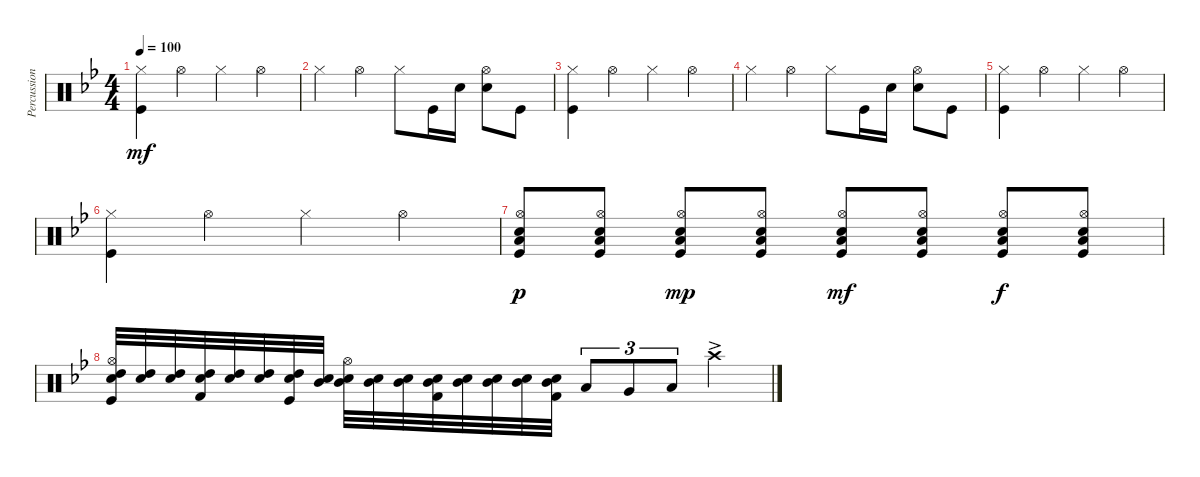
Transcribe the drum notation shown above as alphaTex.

\track ("Percussion" "Percussion") {instrument percussion}
\staff {score}
\articulation defaults
\ts (4 4)
\tempo 100
\clef neutral
\ks bb
("Hi-Hat (closed)" "Kick (hit)").4{dy mf} "Hi-Hat (open)".4 "Hi-Hat (closed)".4 "Hi-Hat (open)".4 |
"Hi-Hat (closed)".4 "Hi-Hat (open)".4 "Hi-Hat (closed)".8 "Kick (hit)".16 "Snare (hit) 2".16 ("Hi-Hat (open)" "Snare (hit) 2").8 "Kick (hit)".8 |
("Hi-Hat (closed)" "Kick (hit)").4 "Hi-Hat (open)".4 "Hi-Hat (closed)".4 "Hi-Hat (open)".4 |
"Hi-Hat (closed)".4 "Hi-Hat (open)".4 "Hi-Hat (closed)".8 "Kick (hit)".16 "Snare (hit) 2".16 ("Hi-Hat (open)" "Snare (hit) 2").8 "Kick (hit)".8 |
("Hi-Hat (closed)" "Kick (hit)").4 "Hi-Hat (open)".4 "Hi-Hat (closed)".4 "Hi-Hat (open)".4 |
("Hi-Hat (closed)" "Kick (hit)").4 "Hi-Hat (open)".4 "Hi-Hat (closed)".4 "Hi-Hat (open)".4 |
("Hi-Hat (open)" "Kick (hit)" "Snare (hit) 2" "Low Floor Tom (hit)").8{dy p} ("Hi-Hat (open)" "Kick (hit)" "Snare (hit) 2" "Low Floor Tom (hit)").8 ("Hi-Hat (open)" "Kick (hit)" "Snare (hit) 2" "Low Floor Tom (hit)").8{dy mp} ("Hi-Hat (open)" "Kick (hit)" "Snare (hit) 2" "Low Floor Tom (hit)").8 ("Hi-Hat (open)" "Kick (hit)" "Snare (hit) 2" "Low Floor Tom (hit)").8{dy mf} ("Hi-Hat (open)" "Kick (hit)" "Snare (hit) 2" "Low Floor Tom (hit)").8 ("Hi-Hat (open)" "Kick (hit)" "Snare (hit) 2" "Low Floor Tom (hit)").8{dy f} ("Hi-Hat (open)" "Kick (hit)" "Snare (hit) 2" "Low Floor Tom (hit)").8 |
("Hi-Hat (open)" "Kick (hit)" "High Tom (hit)" "Snare (hit) 2").32 ("High Tom (hit)" "Snare (hit) 2").32 ("High Tom (hit)" "Snare (hit) 2").32 ("High Tom (hit)" "Kick (hit) 2" "Snare (hit) 2").32 ("High Tom (hit)" "Snare (hit) 2").32 ("High Tom (hit)" "Snare (hit) 2").32 ("High Tom (hit)" "Kick (hit)" "Snare (hit) 2").32 ("Mid Tom (hit)" "Snare (hit) 2").32 ("Mid Tom (hit)" "Hi-Hat (open)" "Snare (hit) 2").32 ("Mid Tom (hit)" "Snare (hit) 2").32 ("Mid Tom (hit)" "Snare (hit) 2").32 ("Mid Tom (hit)" "Kick (hit) 2" "Snare (hit) 2").32 ("Mid Tom (hit)" "Snare (hit) 2").32 ("Mid Tom (hit)" "Snare (hit) 2").32 ("Mid Tom (hit)" "Snare (hit) 2").32 ("Mid Tom (hit)" "Kick (hit) 2" "Snare (hit) 2").32 "Low Tom (hit)".8{tu (3 2)} "Very Low Tom (hit)".8{tu (3 2)} "Low Floor Tom (hit)".8{tu (3 2)} "Crash high (hit)"{ac}.4
